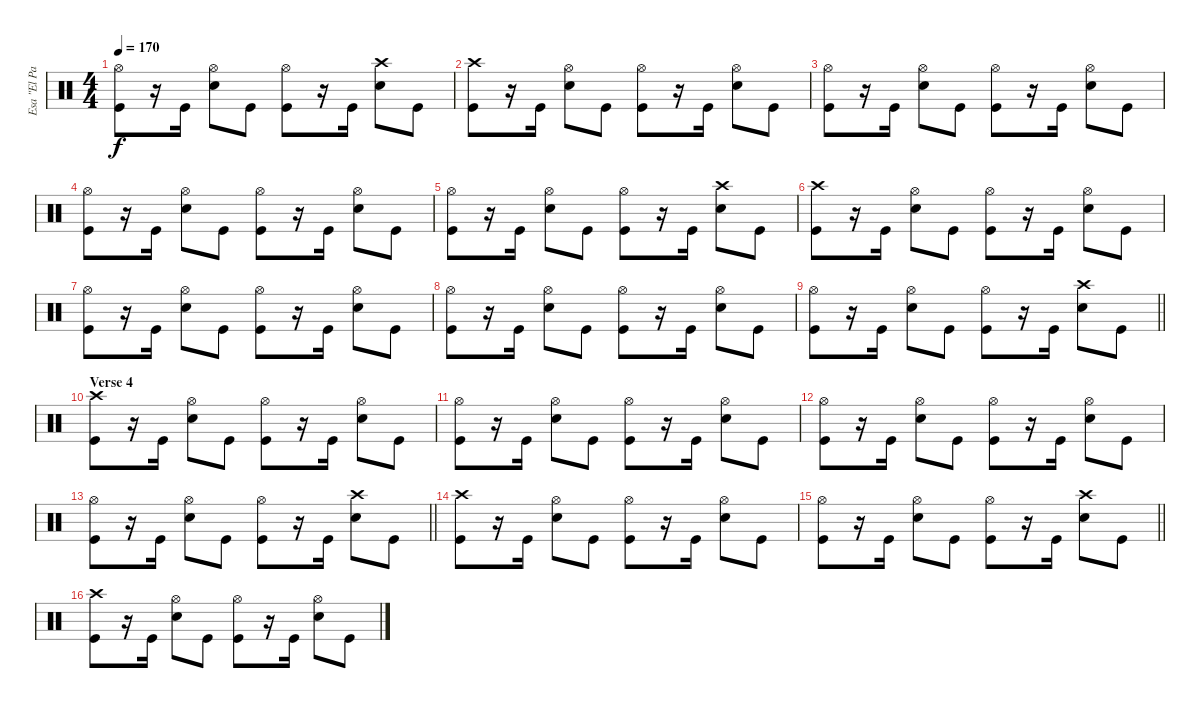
\track ("Esa \"El Pasaderia\" Palosaari" "Esa \"El Pa") {instrument percussion}
\staff {score}
\articulation defaults
\ts (4 4)
\tempo 170
\clef neutral
\ks c
("Hi-Hat (open)" "Kick (hit)").8{dy f} r.16 "Kick (hit)".16 ("Hi-Hat (open)" "Snare (hit) 2").8 "Kick (hit)".8 ("Hi-Hat (open)" "Kick (hit)").8 r.16 "Kick (hit)".16 ("Crash high (hit)" "Snare (hit) 2").8 "Kick (hit)".8 |
("Crash high (hit)" "Kick (hit)").8 r.16 "Kick (hit)".16 ("Hi-Hat (open)" "Snare (hit) 2").8 "Kick (hit)".8 ("Hi-Hat (open)" "Kick (hit)").8 r.16 "Kick (hit)".16 ("Hi-Hat (open)" "Snare (hit) 2").8 "Kick (hit)".8 |
("Hi-Hat (open)" "Kick (hit)").8 r.16 "Kick (hit)".16 ("Hi-Hat (open)" "Snare (hit) 2").8 "Kick (hit)".8 ("Hi-Hat (open)" "Kick (hit)").8 r.16 "Kick (hit)".16 ("Hi-Hat (open)" "Snare (hit) 2").8 "Kick (hit)".8 |
("Hi-Hat (open)" "Kick (hit)").8 r.16 "Kick (hit)".16 ("Hi-Hat (open)" "Snare (hit) 2").8 "Kick (hit)".8 ("Hi-Hat (open)" "Kick (hit)").8 r.16 "Kick (hit)".16 ("Hi-Hat (open)" "Snare (hit) 2").8 "Kick (hit)".8 |
("Hi-Hat (open)" "Kick (hit)").8 r.16 "Kick (hit)".16 ("Hi-Hat (open)" "Snare (hit) 2").8 "Kick (hit)".8 ("Hi-Hat (open)" "Kick (hit)").8 r.16 "Kick (hit)".16 ("Crash high (hit)" "Snare (hit) 2").8 "Kick (hit)".8 |
("Crash high (hit)" "Kick (hit)").8 r.16 "Kick (hit)".16 ("Hi-Hat (open)" "Snare (hit) 2").8 "Kick (hit)".8 ("Hi-Hat (open)" "Kick (hit)").8 r.16 "Kick (hit)".16 ("Hi-Hat (open)" "Snare (hit) 2").8 "Kick (hit)".8 |
("Hi-Hat (open)" "Kick (hit)").8 r.16 "Kick (hit)".16 ("Hi-Hat (open)" "Snare (hit) 2").8 "Kick (hit)".8 ("Hi-Hat (open)" "Kick (hit)").8 r.16 "Kick (hit)".16 ("Hi-Hat (open)" "Snare (hit) 2").8 "Kick (hit)".8 |
("Hi-Hat (open)" "Kick (hit)").8 r.16 "Kick (hit)".16 ("Hi-Hat (open)" "Snare (hit) 2").8 "Kick (hit)".8 ("Hi-Hat (open)" "Kick (hit)").8 r.16 "Kick (hit)".16 ("Hi-Hat (open)" "Snare (hit) 2").8 "Kick (hit)".8 |
\barLineRight lightlight
("Hi-Hat (open)" "Kick (hit)").8 r.16 "Kick (hit)".16 ("Hi-Hat (open)" "Snare (hit) 2").8 "Kick (hit)".8 ("Hi-Hat (open)" "Kick (hit)").8 r.16 "Kick (hit)".16 ("Crash high (hit)" "Snare (hit) 2").8 "Kick (hit)".8 |
\section ("" "Verse 4")
("Crash high (hit)" "Kick (hit)").8 r.16 "Kick (hit)".16 ("Hi-Hat (open)" "Snare (hit) 2").8 "Kick (hit)".8 ("Hi-Hat (open)" "Kick (hit)").8 r.16 "Kick (hit)".16 ("Hi-Hat (open)" "Snare (hit) 2").8 "Kick (hit)".8 |
("Hi-Hat (open)" "Kick (hit)").8 r.16 "Kick (hit)".16 ("Hi-Hat (open)" "Snare (hit) 2").8 "Kick (hit)".8 ("Hi-Hat (open)" "Kick (hit)").8 r.16 "Kick (hit)".16 ("Hi-Hat (open)" "Snare (hit) 2").8 "Kick (hit)".8 |
("Hi-Hat (open)" "Kick (hit)").8 r.16 "Kick (hit)".16 ("Hi-Hat (open)" "Snare (hit) 2").8 "Kick (hit)".8 ("Hi-Hat (open)" "Kick (hit)").8 r.16 "Kick (hit)".16 ("Hi-Hat (open)" "Snare (hit) 2").8 "Kick (hit)".8 |
\barLineRight lightlight
("Hi-Hat (open)" "Kick (hit)").8 r.16 "Kick (hit)".16 ("Hi-Hat (open)" "Snare (hit) 2").8 "Kick (hit)".8 ("Hi-Hat (open)" "Kick (hit)").8 r.16 "Kick (hit)".16 ("Crash high (hit)" "Snare (hit) 2").8 "Kick (hit)".8 |
("Crash high (hit)" "Kick (hit)").8 r.16 "Kick (hit)".16 ("Hi-Hat (open)" "Snare (hit) 2").8 "Kick (hit)".8 ("Hi-Hat (open)" "Kick (hit)").8 r.16 "Kick (hit)".16 ("Hi-Hat (open)" "Snare (hit) 2").8 "Kick (hit)".8 |
\barLineRight lightlight
("Hi-Hat (open)" "Kick (hit)").8 r.16 "Kick (hit)".16 ("Hi-Hat (open)" "Snare (hit) 2").8 "Kick (hit)".8 ("Hi-Hat (open)" "Kick (hit)").8 r.16 "Kick (hit)".16 ("Crash high (hit)" "Snare (hit) 2").8 "Kick (hit)".8 |
("Crash high (hit)" "Kick (hit)").8 r.16 "Kick (hit)".16 ("Hi-Hat (open)" "Snare (hit) 2").8 "Kick (hit)".8 ("Hi-Hat (open)" "Kick (hit)").8 r.16 "Kick (hit)".16 ("Hi-Hat (open)" "Snare (hit) 2").8 "Kick (hit)".8
